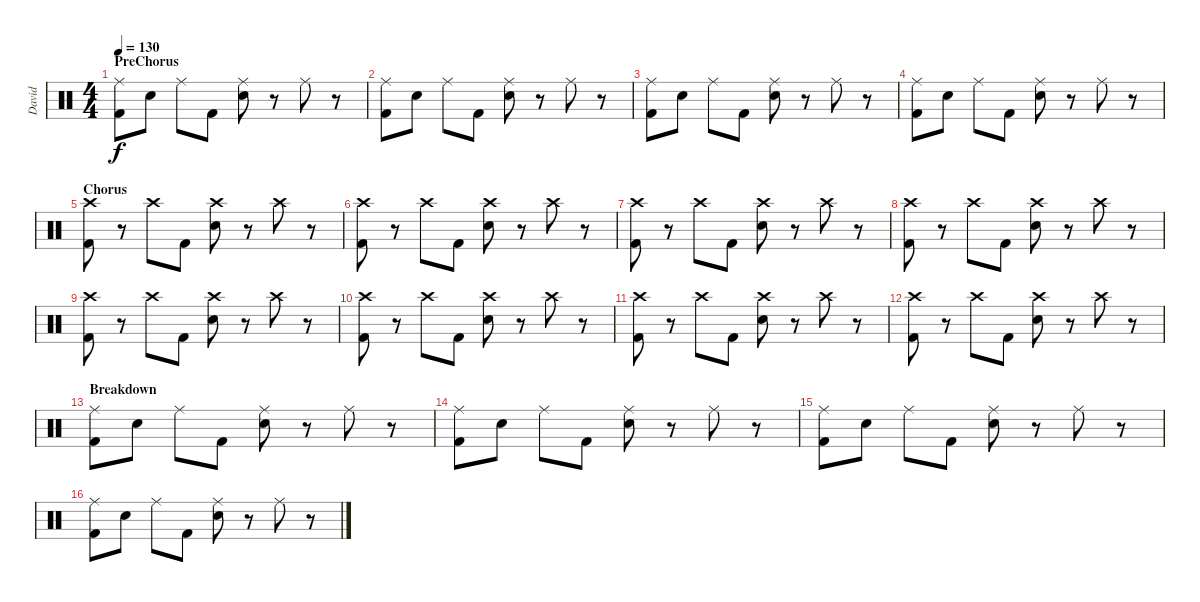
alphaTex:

\track ("David" "David") {instrument percussion}
\staff {score}
\articulation defaults
\ts (4 4)
\section ("" "PreChorus")
\tempo 130
\clef neutral
\ks c
("Ride (middle)" "Kick (hit) 2").8{dy f} "Snare (hit) 2".8 "Ride (middle)".8 "Kick (hit) 2".8 ("Ride (middle)" "Snare (hit) 2").8 r.8 "Ride (middle)".8 r.8 |
("Ride (middle)" "Kick (hit) 2").8 "Snare (hit) 2".8 "Ride (middle)".8 "Kick (hit) 2".8 ("Ride (middle)" "Snare (hit) 2").8 r.8 "Ride (middle)".8 r.8 |
("Ride (middle)" "Kick (hit) 2").8 "Snare (hit) 2".8 "Ride (middle)".8 "Kick (hit) 2".8 ("Ride (middle)" "Snare (hit) 2").8 r.8 "Ride (middle)".8 r.8 |
("Ride (middle)" "Kick (hit) 2").8 "Snare (hit) 2".8 "Ride (middle)".8 "Kick (hit) 2".8 ("Ride (middle)" "Snare (hit) 2").8 r.8 "Ride (middle)".8 r.8 |
\section ("" "Chorus")
("Crash high (hit)" "Kick (hit) 2").8 r.8 "Crash high (hit)".8 "Kick (hit) 2".8 ("Crash high (hit)" "Snare (hit) 2").8 r.8 "Crash high (hit)".8 r.8 |
("Crash high (hit)" "Kick (hit) 2").8 r.8 "Crash high (hit)".8 "Kick (hit) 2".8 ("Crash high (hit)" "Snare (hit) 2").8 r.8 "Crash high (hit)".8 r.8 |
("Crash high (hit)" "Kick (hit) 2").8 r.8 "Crash high (hit)".8 "Kick (hit) 2".8 ("Crash high (hit)" "Snare (hit) 2").8 r.8 "Crash high (hit)".8 r.8 |
("Crash high (hit)" "Kick (hit) 2").8 r.8 "Crash high (hit)".8 "Kick (hit) 2".8 ("Crash high (hit)" "Snare (hit) 2").8 r.8 "Crash high (hit)".8 r.8 |
("Crash high (hit)" "Kick (hit) 2").8 r.8 "Crash high (hit)".8 "Kick (hit) 2".8 ("Crash high (hit)" "Snare (hit) 2").8 r.8 "Crash high (hit)".8 r.8 |
("Crash high (hit)" "Kick (hit) 2").8 r.8 "Crash high (hit)".8 "Kick (hit) 2".8 ("Crash high (hit)" "Snare (hit) 2").8 r.8 "Crash high (hit)".8 r.8 |
("Crash high (hit)" "Kick (hit) 2").8 r.8 "Crash high (hit)".8 "Kick (hit) 2".8 ("Crash high (hit)" "Snare (hit) 2").8 r.8 "Crash high (hit)".8 r.8 |
("Crash high (hit)" "Kick (hit) 2").8 r.8 "Crash high (hit)".8 "Kick (hit) 2".8 ("Crash high (hit)" "Snare (hit) 2").8 r.8 "Crash high (hit)".8 r.8 |
\section ("" "Breakdown")
("Ride (middle)" "Kick (hit) 2").8 "Snare (hit) 2".8 "Ride (middle)".8 "Kick (hit) 2".8 ("Ride (middle)" "Snare (hit) 2").8 r.8 "Ride (middle)".8 r.8 |
("Ride (middle)" "Kick (hit) 2").8 "Snare (hit) 2".8 "Ride (middle)".8 "Kick (hit) 2".8 ("Ride (middle)" "Snare (hit) 2").8 r.8 "Ride (middle)".8 r.8 |
("Ride (middle)" "Kick (hit) 2").8 "Snare (hit) 2".8 "Ride (middle)".8 "Kick (hit) 2".8 ("Ride (middle)" "Snare (hit) 2").8 r.8 "Ride (middle)".8 r.8 |
("Ride (middle)" "Kick (hit) 2").8 "Snare (hit) 2".8 "Ride (middle)".8 "Kick (hit) 2".8 ("Ride (middle)" "Snare (hit) 2").8 r.8 "Ride (middle)".8 r.8
